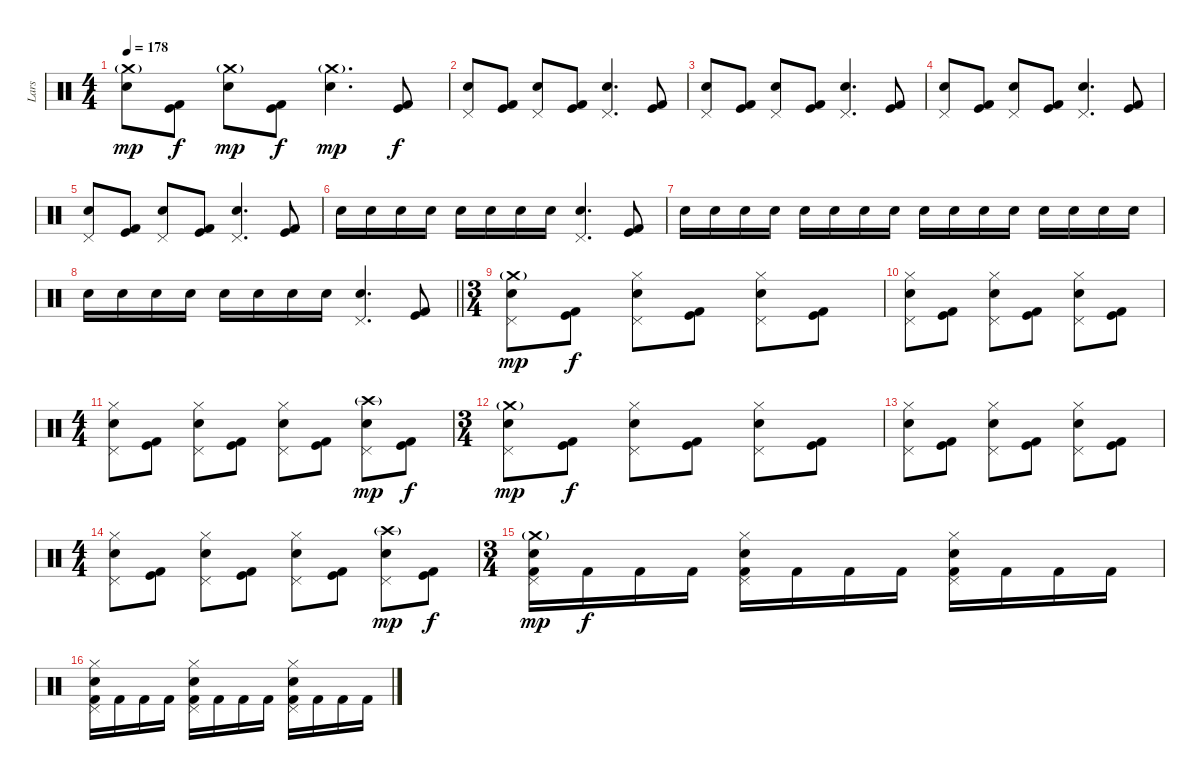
\track ("Lars" "Lars") {instrument percussion}
\staff {score}
\articulation defaults
\ts (4 4)
\tempo 178
\clef neutral
\ks c
("Crash medium (hit)"{g} "Electric Snare (hit)").8{dy mp} ("Kick (hit)" "Kick (hit) 2").8{dy f} ("Crash medium (hit)"{g} "Electric Snare (hit)").8{dy mp} ("Kick (hit)" "Kick (hit) 2").8{dy f} ("Crash medium (hit)"{g} "Electric Snare (hit)").4{d dy mp} ("Kick (hit)" "Kick (hit) 2").8{dy f} |
("Pedal Hi-Hat (hit)" "Electric Snare (hit)").8 ("Kick (hit)" "Kick (hit) 2").8 ("Pedal Hi-Hat (hit)" "Electric Snare (hit)").8 ("Kick (hit)" "Kick (hit) 2").8 ("Pedal Hi-Hat (hit)" "Electric Snare (hit)").4{d} ("Kick (hit)" "Kick (hit) 2").8 |
("Pedal Hi-Hat (hit)" "Electric Snare (hit)").8 ("Kick (hit)" "Kick (hit) 2").8 ("Pedal Hi-Hat (hit)" "Electric Snare (hit)").8 ("Kick (hit)" "Kick (hit) 2").8 ("Pedal Hi-Hat (hit)" "Electric Snare (hit)").4{d} ("Kick (hit)" "Kick (hit) 2").8 |
("Pedal Hi-Hat (hit)" "Electric Snare (hit)").8 ("Kick (hit)" "Kick (hit) 2").8 ("Pedal Hi-Hat (hit)" "Electric Snare (hit)").8 ("Kick (hit)" "Kick (hit) 2").8 ("Pedal Hi-Hat (hit)" "Electric Snare (hit)").4{d} ("Kick (hit)" "Kick (hit) 2").8 |
("Pedal Hi-Hat (hit)" "Electric Snare (hit)").8 ("Kick (hit)" "Kick (hit) 2").8 ("Pedal Hi-Hat (hit)" "Electric Snare (hit)").8 ("Kick (hit)" "Kick (hit) 2").8 ("Pedal Hi-Hat (hit)" "Electric Snare (hit)").4{d} ("Kick (hit)" "Kick (hit) 2").8 |
"Electric Snare (hit)".16 "Electric Snare (hit)".16 "Electric Snare (hit)".16 "Electric Snare (hit)".16 "Electric Snare (hit)".16 "Electric Snare (hit)".16 "Electric Snare (hit)".16 "Electric Snare (hit)".16 ("Pedal Hi-Hat (hit)" "Electric Snare (hit)").4{d} ("Kick (hit)" "Kick (hit) 2").8 |
"Electric Snare (hit)".16 "Electric Snare (hit)".16 "Electric Snare (hit)".16 "Electric Snare (hit)".16 "Electric Snare (hit)".16 "Electric Snare (hit)".16 "Electric Snare (hit)".16 "Electric Snare (hit)".16 "Electric Snare (hit)".16 "Electric Snare (hit)".16 "Electric Snare (hit)".16 "Electric Snare (hit)".16 "Electric Snare (hit)".16 "Electric Snare (hit)".16 "Electric Snare (hit)".16 "Electric Snare (hit)".16 |
\barLineRight lightlight "Electric Snare (hit)".16 "Electric Snare (hit)".16 "Electric Snare (hit)".16 "Electric Snare (hit)".16 "Electric Snare (hit)".16 "Electric Snare (hit)".16 "Electric Snare (hit)".16 "Electric Snare (hit)".16
("Pedal Hi-Hat (hit)" "Electric Snare (hit)").4{d} ("Kick (hit)" "Kick (hit) 2").8 |
\ts (3 4)
\section ("" "")
("Crash medium (hit)"{g} "Pedal Hi-Hat (hit)" "Electric Snare (hit)").8{dy mp} ("Kick (hit)" "Kick (hit) 2").8{dy f} ("Hi-Hat (closed)" "Pedal Hi-Hat (hit)" "Electric Snare (hit)").8 ("Kick (hit)" "Kick (hit) 2").8 ("Hi-Hat (closed)" "Pedal Hi-Hat (hit)" "Electric Snare (hit)").8 ("Kick (hit)" "Kick (hit) 2").8 |
("Hi-Hat (closed)" "Pedal Hi-Hat (hit)" "Electric Snare (hit)").8 ("Kick (hit)" "Kick (hit) 2").8 ("Hi-Hat (closed)" "Pedal Hi-Hat (hit)" "Electric Snare (hit)").8 ("Kick (hit)" "Kick (hit) 2").8 ("Hi-Hat (closed)" "Pedal Hi-Hat (hit)" "Electric Snare (hit)").8 ("Kick (hit)" "Kick (hit) 2").8 |
\ts (4 4)
("Hi-Hat (closed)" "Pedal Hi-Hat (hit)" "Electric Snare (hit)").8 ("Kick (hit)" "Kick (hit) 2").8 ("Hi-Hat (closed)" "Pedal Hi-Hat (hit)" "Electric Snare (hit)").8 ("Kick (hit)" "Kick (hit) 2").8 ("Hi-Hat (closed)" "Pedal Hi-Hat (hit)" "Electric Snare (hit)").8 ("Kick (hit)" "Kick (hit) 2").8 ("Crash high (hit)"{g} "Pedal Hi-Hat (hit)" "Electric Snare (hit)").8{dy mp} ("Kick (hit)" "Kick (hit) 2").8{dy f} |
\ts (3 4)
("Crash medium (hit)"{g} "Pedal Hi-Hat (hit)" "Electric Snare (hit)").8{dy mp} ("Kick (hit)" "Kick (hit) 2").8{dy f} ("Hi-Hat (closed)" "Pedal Hi-Hat (hit)" "Electric Snare (hit)").8 ("Kick (hit)" "Kick (hit) 2").8 ("Hi-Hat (closed)" "Pedal Hi-Hat (hit)" "Electric Snare (hit)").8 ("Kick (hit)" "Kick (hit) 2").8 |
("Hi-Hat (closed)" "Pedal Hi-Hat (hit)" "Electric Snare (hit)").8 ("Kick (hit)" "Kick (hit) 2").8 ("Hi-Hat (closed)" "Pedal Hi-Hat (hit)" "Electric Snare (hit)").8 ("Kick (hit)" "Kick (hit) 2").8 ("Hi-Hat (closed)" "Pedal Hi-Hat (hit)" "Electric Snare (hit)").8 ("Kick (hit)" "Kick (hit) 2").8 |
\ts (4 4)
("Hi-Hat (closed)" "Pedal Hi-Hat (hit)" "Electric Snare (hit)").8 ("Kick (hit)" "Kick (hit) 2").8 ("Hi-Hat (closed)" "Pedal Hi-Hat (hit)" "Electric Snare (hit)").8 ("Kick (hit)" "Kick (hit) 2").8 ("Hi-Hat (closed)" "Pedal Hi-Hat (hit)" "Electric Snare (hit)").8 ("Kick (hit)" "Kick (hit) 2").8 ("Crash high (hit)"{g} "Pedal Hi-Hat (hit)" "Electric Snare (hit)").8{dy mp} ("Kick (hit)" "Kick (hit) 2").8{dy f} |
\ts (3 4)
("Crash medium (hit)"{g} "Pedal Hi-Hat (hit)" "Electric Snare (hit)" "Kick (hit) 2").16{dy mp} "Kick (hit) 2".16{dy f} "Kick (hit) 2".16 "Kick (hit) 2".16 ("Hi-Hat (closed)" "Pedal Hi-Hat (hit)" "Electric Snare (hit)" "Kick (hit) 2").16 "Kick (hit) 2".16 "Kick (hit) 2".16 "Kick (hit) 2".16 ("Hi-Hat (closed)" "Pedal Hi-Hat (hit)" "Electric Snare (hit)" "Kick (hit) 2").16 "Kick (hit) 2".16 "Kick (hit) 2".16 "Kick (hit) 2".16 |
("Hi-Hat (closed)" "Pedal Hi-Hat (hit)" "Electric Snare (hit)" "Kick (hit) 2").16 "Kick (hit) 2".16 "Kick (hit) 2".16 "Kick (hit) 2".16 ("Hi-Hat (closed)" "Pedal Hi-Hat (hit)" "Electric Snare (hit)" "Kick (hit) 2").16 "Kick (hit) 2".16 "Kick (hit) 2".16 "Kick (hit) 2".16 ("Hi-Hat (closed)" "Pedal Hi-Hat (hit)" "Electric Snare (hit)" "Kick (hit) 2").16 "Kick (hit) 2".16 "Kick (hit) 2".16 "Kick (hit) 2".16
